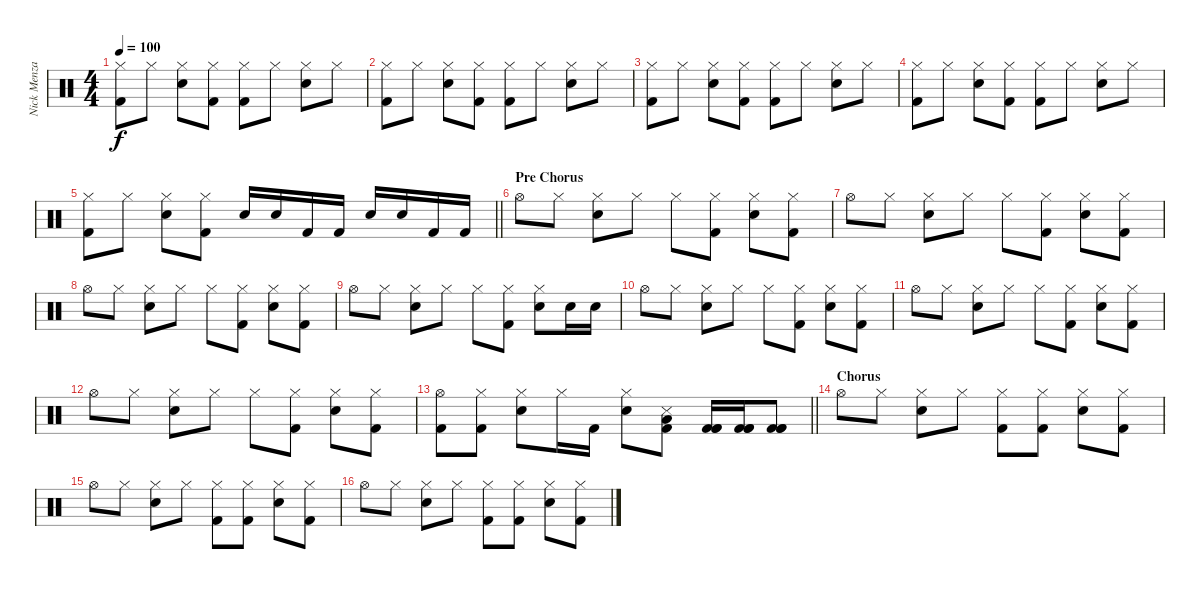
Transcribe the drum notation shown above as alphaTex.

\track ("Nick Menza" "Nick Menza") {instrument percussion}
\staff {score}
\articulation defaults
\ts (4 4)
\tempo 100
\clef neutral
\ks c
("Hi-Hat (closed)" "Kick (hit) 2").8{dy f} "Hi-Hat (closed)".8 ("Hi-Hat (closed)" "Snare (hit) 2").8 ("Hi-Hat (closed)" "Kick (hit) 2").8 ("Hi-Hat (closed)" "Kick (hit) 2").8 "Hi-Hat (closed)".8 ("Hi-Hat (closed)" "Snare (hit) 2").8 "Hi-Hat (closed)".8 |
("Hi-Hat (closed)" "Kick (hit) 2").8 "Hi-Hat (closed)".8 ("Hi-Hat (closed)" "Snare (hit) 2").8 ("Hi-Hat (closed)" "Kick (hit) 2").8 ("Hi-Hat (closed)" "Kick (hit) 2").8 "Hi-Hat (closed)".8 ("Hi-Hat (closed)" "Snare (hit) 2").8 "Hi-Hat (closed)".8 |
("Hi-Hat (closed)" "Kick (hit) 2").8 "Hi-Hat (closed)".8 ("Hi-Hat (closed)" "Snare (hit) 2").8 ("Hi-Hat (closed)" "Kick (hit) 2").8 ("Hi-Hat (closed)" "Kick (hit) 2").8 "Hi-Hat (closed)".8 ("Hi-Hat (closed)" "Snare (hit) 2").8 "Hi-Hat (closed)".8 |
("Hi-Hat (closed)" "Kick (hit) 2").8 "Hi-Hat (closed)".8 ("Hi-Hat (closed)" "Snare (hit) 2").8 ("Hi-Hat (closed)" "Kick (hit) 2").8 ("Hi-Hat (closed)" "Kick (hit) 2").8 "Hi-Hat (closed)".8 ("Hi-Hat (closed)" "Snare (hit) 2").8 "Hi-Hat (closed)".8 |
\barLineRight lightlight
("Hi-Hat (closed)" "Kick (hit) 2").8 "Hi-Hat (closed)".8 ("Hi-Hat (closed)" "Snare (hit) 2").8 ("Hi-Hat (closed)" "Kick (hit) 2").8 "Snare (hit) 2".16 "Snare (hit) 2".16 "Kick (hit) 2".16 "Kick (hit) 2".16 "Snare (hit) 2".16 "Snare (hit) 2".16 "Kick (hit) 2".16 "Kick (hit) 2".16 |
\section ("" "Pre Chorus")
"Hi-Hat (open)".8 "Hi-Hat (closed)".8 ("Hi-Hat (closed)" "Snare (hit) 2").8 "Hi-Hat (closed)".8 "Hi-Hat (closed)".8 ("Hi-Hat (closed)" "Kick (hit) 2").8 ("Hi-Hat (closed)" "Snare (hit) 2").8 ("Hi-Hat (closed)" "Kick (hit) 2").8 |
"Hi-Hat (open)".8 "Hi-Hat (closed)".8 ("Hi-Hat (closed)" "Snare (hit) 2").8 "Hi-Hat (closed)".8 "Hi-Hat (closed)".8 ("Hi-Hat (closed)" "Kick (hit) 2").8 ("Hi-Hat (closed)" "Snare (hit) 2").8 ("Hi-Hat (closed)" "Kick (hit) 2").8 |
"Hi-Hat (open)".8 "Hi-Hat (closed)".8 ("Hi-Hat (closed)" "Snare (hit) 2").8 "Hi-Hat (closed)".8 "Hi-Hat (closed)".8 ("Hi-Hat (closed)" "Kick (hit) 2").8 ("Hi-Hat (closed)" "Snare (hit) 2").8 ("Hi-Hat (closed)" "Kick (hit) 2").8 |
"Hi-Hat (open)".8 "Hi-Hat (closed)".8 ("Hi-Hat (closed)" "Snare (hit) 2").8 "Hi-Hat (closed)".8 "Hi-Hat (closed)".8 ("Hi-Hat (closed)" "Kick (hit) 2").8 ("Hi-Hat (closed)" "Snare (hit) 2").8 "Snare (hit) 2".16 "Snare (hit) 2".16 |
"Hi-Hat (open)".8 "Hi-Hat (closed)".8 ("Hi-Hat (closed)" "Snare (hit) 2").8 "Hi-Hat (closed)".8 "Hi-Hat (closed)".8 ("Hi-Hat (closed)" "Kick (hit) 2").8 ("Hi-Hat (closed)" "Snare (hit) 2").8 ("Hi-Hat (closed)" "Kick (hit) 2").8 |
"Hi-Hat (open)".8 "Hi-Hat (closed)".8 ("Hi-Hat (closed)" "Snare (hit) 2").8 "Hi-Hat (closed)".8 "Hi-Hat (closed)".8 ("Hi-Hat (closed)" "Kick (hit) 2").8 ("Hi-Hat (closed)" "Snare (hit) 2").8 ("Hi-Hat (closed)" "Kick (hit) 2").8 |
"Hi-Hat (open)".8 "Hi-Hat (closed)".8 ("Hi-Hat (closed)" "Snare (hit) 2").8 "Hi-Hat (closed)".8 "Hi-Hat (closed)".8 ("Hi-Hat (closed)" "Kick (hit) 2").8 ("Hi-Hat (closed)" "Snare (hit) 2").8 ("Hi-Hat (closed)" "Kick (hit) 2").8 |
\barLineRight lightlight
("Hi-Hat (open)" "Kick (hit) 2").8 ("Hi-Hat (closed)" "Kick (hit) 2").8 ("Hi-Hat (closed)" "Snare (hit) 2").8 "Hi-Hat (closed)".16 "Kick (hit) 2".16 ("Hi-Hat (closed)" "Snare (hit) 2").8 ("Low Floor Tom (hit)" "Snare (side stick) 3" "Kick (hit) 2").8 ("Kick (hit) 2" "Kick (hit) 2" "Kick (hit) 2").16 ("Kick (hit) 2" "Kick (hit) 2" "Kick (hit) 2").16 ("Kick (hit) 2" "Kick (hit) 2" "Kick (hit) 2").8 |
\section ("" "Chorus")
"Hi-Hat (open)".8 "Hi-Hat (closed)".8 ("Hi-Hat (closed)" "Snare (hit) 2").8 "Hi-Hat (closed)".8 ("Hi-Hat (closed)" "Kick (hit) 2").8 ("Hi-Hat (closed)" "Kick (hit) 2").8 ("Hi-Hat (closed)" "Snare (hit) 2").8 ("Hi-Hat (closed)" "Kick (hit) 2").8 |
"Hi-Hat (open)".8 "Hi-Hat (closed)".8 ("Hi-Hat (closed)" "Snare (hit) 2").8 "Hi-Hat (closed)".8 ("Hi-Hat (closed)" "Kick (hit) 2").8 ("Hi-Hat (closed)" "Kick (hit) 2").8 ("Hi-Hat (closed)" "Snare (hit) 2").8 ("Hi-Hat (closed)" "Kick (hit) 2").8 |
"Hi-Hat (open)".8 "Hi-Hat (closed)".8 ("Hi-Hat (closed)" "Snare (hit) 2").8 "Hi-Hat (closed)".8 ("Hi-Hat (closed)" "Kick (hit) 2").8 ("Hi-Hat (closed)" "Kick (hit) 2").8 ("Hi-Hat (closed)" "Snare (hit) 2").8 ("Hi-Hat (closed)" "Kick (hit) 2").8
